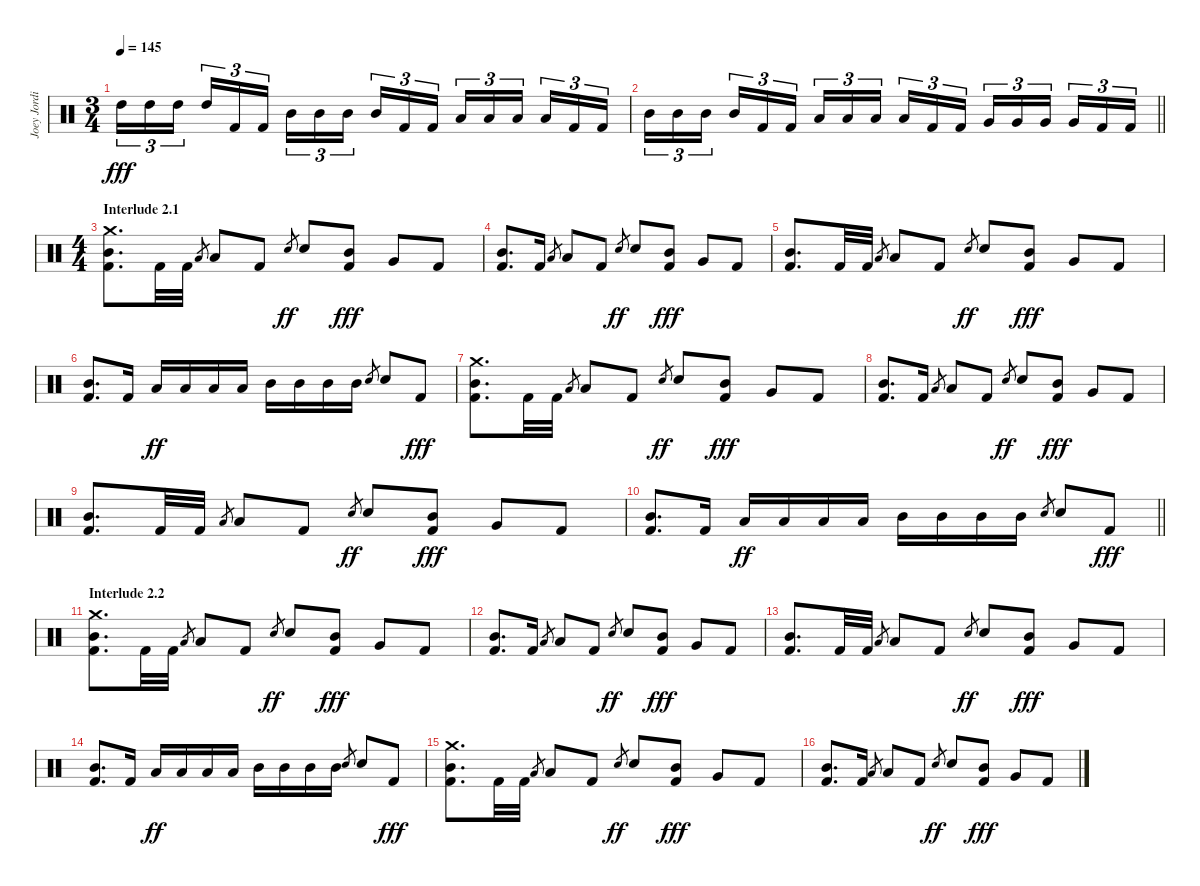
\track ("Joey Jordison" "Joey Jordi") {instrument percussion}
\staff {score}
\articulation defaults
\ts (3 4)
\tempo 145
\clef neutral
\ks c "High Tom (hit)".16{tu (3 2) dy fff} "High Tom (hit)".16{tu (3 2)} "High Tom (hit)".16{tu (3 2) beam splitsecondary} "High Tom (hit)".16{tu (3 2)} "Kick (hit) 2".16{tu (3 2)} "Kick (hit) 2".16{tu (3 2)} "Mid Tom (hit)".16{tu (3 2)} "Mid Tom (hit)".16{tu (3 2)} "Mid Tom (hit)".16{tu (3 2) beam splitsecondary} "Mid Tom (hit)".16{tu (3 2)} "Kick (hit) 2".16{tu (3 2)} "Kick (hit) 2".16{tu (3 2)} "Low Tom (hit)".16{tu (3 2)} "Low Tom (hit)".16{tu (3 2)} "Low Tom (hit)".16{tu (3 2) beam splitsecondary} "Low Tom (hit)".16{tu (3 2)} "Kick (hit) 2".16{tu (3 2)} "Kick (hit) 2".16{tu (3 2)}
|
\barLineRight lightlight "Mid Tom (hit)".16{tu (3 2)} "Mid Tom (hit)".16{tu (3 2)} "Mid Tom (hit)".16{tu (3 2) beam splitsecondary} "Mid Tom (hit)".16{tu (3 2)} "Kick (hit) 2".16{tu (3 2)} "Kick (hit) 2".16{tu (3 2)} "Low Tom (hit)".16{tu (3 2)} "Low Tom (hit)".16{tu (3 2)} "Low Tom (hit)".16{tu (3 2) beam splitsecondary} "Low Tom (hit)".16{tu (3 2)} "Kick (hit) 2".16{tu (3 2)} "Kick (hit) 2".16{tu (3 2)} "Very Low Tom (hit)".16{tu (3 2)} "Very Low Tom (hit)".16{tu (3 2)} "Very Low Tom (hit)".16{tu (3 2) beam splitsecondary} "Very Low Tom (hit)".16{tu (3 2)} "Kick (hit) 2".16{tu (3 2)} "Kick (hit) 2".16{tu (3 2)}
|
\ts (4 4)
\section ("" "Interlude 2.1")
("Crash medium (hit)" "Mid Tom (hit)" "Kick (hit) 2").8{d} "Kick (hit) 2".32 "Kick (hit) 2".32 "Low Tom (hit)".8{gr} "Low Tom (hit)".8 "Kick (hit) 2".8 "Electric Snare (hit)".8{gr dy ff} "Electric Snare (hit)".8 ("Mid Tom (hit)" "Kick (hit) 2").8{dy fff} "Very Low Tom (hit)".8 "Kick (hit) 2".8 |
("Mid Tom (hit)" "Kick (hit) 2").8{d} "Kick (hit) 2".16 "Low Tom (hit)".8{gr} "Low Tom (hit)".8 "Kick (hit) 2".8 "Electric Snare (hit)".8{gr dy ff} "Electric Snare (hit)".8 ("Mid Tom (hit)" "Kick (hit) 2").8{dy fff} "Very Low Tom (hit)".8 "Kick (hit) 2".8 |
("Mid Tom (hit)" "Kick (hit) 2").8{d} "Kick (hit) 2".32 "Kick (hit) 2".32 "Low Tom (hit)".8{gr} "Low Tom (hit)".8 "Kick (hit) 2".8 "Electric Snare (hit)".8{gr dy ff} "Electric Snare (hit)".8 ("Mid Tom (hit)" "Kick (hit) 2").8{dy fff} "Very Low Tom (hit)".8 "Kick (hit) 2".8 |
("Mid Tom (hit)" "Kick (hit) 2").8{d} "Kick (hit) 2".16 "Low Tom (hit)".16{dy ff} "Low Tom (hit)".16 "Low Tom (hit)".16 "Low Tom (hit)".16 "Mid Tom (hit)".16 "Mid Tom (hit)".16 "Mid Tom (hit)".16 "Mid Tom (hit)".16 "Electric Snare (hit)".8{gr} "Electric Snare (hit)".8 "Kick (hit) 2".8{dy fff} |
("Crash medium (hit)" "Mid Tom (hit)" "Kick (hit) 2").8{d} "Kick (hit) 2".32 "Kick (hit) 2".32 "Low Tom (hit)".8{gr} "Low Tom (hit)".8 "Kick (hit) 2".8 "Electric Snare (hit)".8{gr dy ff} "Electric Snare (hit)".8 ("Mid Tom (hit)" "Kick (hit) 2").8{dy fff} "Very Low Tom (hit)".8 "Kick (hit) 2".8 |
("Mid Tom (hit)" "Kick (hit) 2").8{d} "Kick (hit) 2".16 "Low Tom (hit)".8{gr} "Low Tom (hit)".8 "Kick (hit) 2".8 "Electric Snare (hit)".8{gr dy ff} "Electric Snare (hit)".8 ("Mid Tom (hit)" "Kick (hit) 2").8{dy fff} "Very Low Tom (hit)".8 "Kick (hit) 2".8 |
("Mid Tom (hit)" "Kick (hit) 2").8{d} "Kick (hit) 2".32 "Kick (hit) 2".32 "Low Tom (hit)".8{gr} "Low Tom (hit)".8 "Kick (hit) 2".8 "Electric Snare (hit)".8{gr dy ff} "Electric Snare (hit)".8 ("Mid Tom (hit)" "Kick (hit) 2").8{dy fff} "Very Low Tom (hit)".8 "Kick (hit) 2".8 |
\barLineRight lightlight
("Mid Tom (hit)" "Kick (hit) 2").8{d} "Kick (hit) 2".16 "Low Tom (hit)".16{dy ff} "Low Tom (hit)".16 "Low Tom (hit)".16 "Low Tom (hit)".16 "Mid Tom (hit)".16 "Mid Tom (hit)".16 "Mid Tom (hit)".16 "Mid Tom (hit)".16 "Electric Snare (hit)".8{gr} "Electric Snare (hit)".8 "Kick (hit) 2".8{dy fff} |
\section ("" "Interlude 2.2")
("Crash medium (hit)" "Mid Tom (hit)" "Kick (hit) 2").8{d} "Kick (hit) 2".32 "Kick (hit) 2".32 "Low Tom (hit)".8{gr} "Low Tom (hit)".8 "Kick (hit) 2".8 "Electric Snare (hit)".8{gr dy ff} "Electric Snare (hit)".8 ("Mid Tom (hit)" "Kick (hit) 2").8{dy fff} "Very Low Tom (hit)".8 "Kick (hit) 2".8 |
("Mid Tom (hit)" "Kick (hit) 2").8{d} "Kick (hit) 2".16 "Low Tom (hit)".8{gr} "Low Tom (hit)".8 "Kick (hit) 2".8 "Electric Snare (hit)".8{gr dy ff} "Electric Snare (hit)".8 ("Mid Tom (hit)" "Kick (hit) 2").8{dy fff} "Very Low Tom (hit)".8 "Kick (hit) 2".8 |
("Mid Tom (hit)" "Kick (hit) 2").8{d} "Kick (hit) 2".32 "Kick (hit) 2".32 "Low Tom (hit)".8{gr} "Low Tom (hit)".8 "Kick (hit) 2".8 "Electric Snare (hit)".8{gr dy ff} "Electric Snare (hit)".8 ("Mid Tom (hit)" "Kick (hit) 2").8{dy fff} "Very Low Tom (hit)".8 "Kick (hit) 2".8 |
("Mid Tom (hit)" "Kick (hit) 2").8{d} "Kick (hit) 2".16 "Low Tom (hit)".16{dy ff} "Low Tom (hit)".16 "Low Tom (hit)".16 "Low Tom (hit)".16 "Mid Tom (hit)".16 "Mid Tom (hit)".16 "Mid Tom (hit)".16 "Mid Tom (hit)".16 "Electric Snare (hit)".8{gr} "Electric Snare (hit)".8 "Kick (hit) 2".8{dy fff} |
("Crash medium (hit)" "Mid Tom (hit)" "Kick (hit) 2").8{d} "Kick (hit) 2".32 "Kick (hit) 2".32 "Low Tom (hit)".8{gr} "Low Tom (hit)".8 "Kick (hit) 2".8 "Electric Snare (hit)".8{gr dy ff} "Electric Snare (hit)".8 ("Mid Tom (hit)" "Kick (hit) 2").8{dy fff} "Very Low Tom (hit)".8 "Kick (hit) 2".8 |
("Mid Tom (hit)" "Kick (hit) 2").8{d} "Kick (hit) 2".16 "Low Tom (hit)".8{gr} "Low Tom (hit)".8 "Kick (hit) 2".8 "Electric Snare (hit)".8{gr dy ff} "Electric Snare (hit)".8 ("Mid Tom (hit)" "Kick (hit) 2").8{dy fff} "Very Low Tom (hit)".8 "Kick (hit) 2".8
